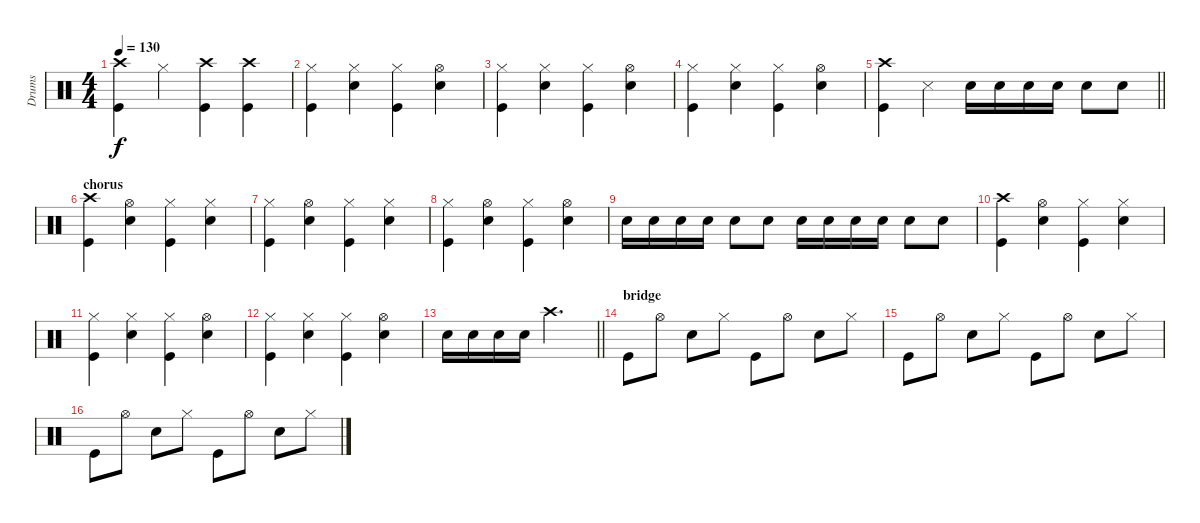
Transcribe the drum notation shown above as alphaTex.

\track ("Drums" "Drums") {instrument percussion}
\staff {score}
\articulation defaults
\ts (4 4)
\tempo 130
\clef neutral
\ks c
("Crash high (hit)" "Kick (hit)").4{dy f} "Hi-Hat (closed)".4 ("Crash high (hit)" "Kick (hit)").4 ("Crash high (hit)" "Kick (hit)").4 |
("Kick (hit)" "Hi-Hat (closed)").4 ("Hi-Hat (closed)" "Snare (hit) 2").4 ("Hi-Hat (closed)" "Kick (hit)").4 ("Hi-Hat (open)" "Snare (hit) 2").4 |
("Kick (hit)" "Hi-Hat (closed)").4 ("Hi-Hat (closed)" "Snare (hit) 2").4 ("Hi-Hat (closed)" "Kick (hit)").4 ("Hi-Hat (open)" "Snare (hit) 2").4 |
("Kick (hit)" "Hi-Hat (closed)").4 ("Hi-Hat (closed)" "Snare (hit) 2").4 ("Hi-Hat (closed)" "Kick (hit)").4 ("Hi-Hat (open)" "Snare (hit) 2").4 |
\barLineRight lightlight
("Crash high (hit)" "Kick (hit)").4 "Snare (side stick) 3".4 "Snare (hit) 2".16 "Snare (hit) 2".16 "Snare (hit) 2".16 "Snare (hit) 2".16 "Snare (hit) 2".8 "Snare (hit) 2".8 |
\section ("" "chorus")
("Crash high (hit)" "Kick (hit)").4 ("Hi-Hat (open)" "Snare (hit) 2").4 ("Hi-Hat (closed)" "Kick (hit)").4 ("Snare (hit) 2" "Hi-Hat (closed)").4 |
("Kick (hit)" "Hi-Hat (closed)").4 ("Snare (hit) 2" "Hi-Hat (open)").4 ("Kick (hit)" "Hi-Hat (closed)").4 ("Hi-Hat (closed)" "Snare (hit) 2").4 |
("Kick (hit)" "Hi-Hat (closed)").4 ("Snare (hit) 2" "Hi-Hat (open)").4 ("Kick (hit)" "Hi-Hat (closed)").4 ("Hi-Hat (open)" "Snare (hit) 2").4 |
"Snare (hit) 2".16 "Snare (hit) 2".16 "Snare (hit) 2".16 "Snare (hit) 2".16 "Snare (hit) 2".8 "Snare (hit) 2".8 "Snare (hit) 2".16 "Snare (hit) 2".16 "Snare (hit) 2".16 "Snare (hit) 2".16 "Snare (hit) 2".8 "Snare (hit) 2".8 |
("Crash high (hit)" "Kick (hit)").4 ("Hi-Hat (open)" "Snare (hit) 2").4 ("Hi-Hat (closed)" "Kick (hit)").4 ("Snare (hit) 2" "Hi-Hat (closed)").4 |
("Kick (hit)" "Hi-Hat (closed)").4 ("Snare (hit) 2" "Hi-Hat (closed)").4 ("Kick (hit)" "Hi-Hat (closed)").4 ("Hi-Hat (open)" "Snare (hit) 2").4 |
("Kick (hit)" "Hi-Hat (closed)").4 ("Snare (hit) 2" "Hi-Hat (closed)").4 ("Kick (hit)" "Hi-Hat (closed)").4 ("Hi-Hat (open)" "Snare (hit) 2").4 |
\barLineRight lightlight "Snare (hit) 2".16 "Snare (hit) 2".16 "Snare (hit) 2".16 "Snare (hit) 2".16 "Crash high (hit)".2{d}
|
\section ("" "bridge")
"Kick (hit)".8 "Hi-Hat (open)".8 "Snare (hit) 2".8 "Hi-Hat (closed)".8 "Kick (hit)".8 "Hi-Hat (open)".8 "Snare (hit) 2".8 "Hi-Hat (closed)".8 |
"Kick (hit)".8 "Hi-Hat (open)".8 "Snare (hit) 2".8 "Hi-Hat (closed)".8 "Kick (hit)".8 "Hi-Hat (open)".8 "Snare (hit) 2".8 "Hi-Hat (closed)".8 |
"Kick (hit)".8 "Hi-Hat (open)".8 "Snare (hit) 2".8 "Hi-Hat (closed)".8 "Kick (hit)".8 "Hi-Hat (open)".8 "Snare (hit) 2".8 "Hi-Hat (closed)".8
